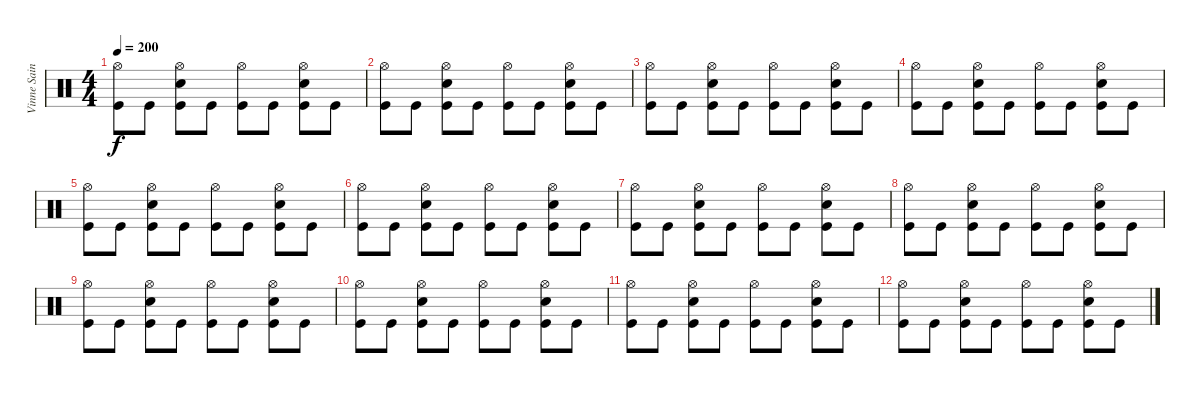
\track ("Vinne Saint James" "Vinne Sain") {instrument percussion}
\staff {score}
\articulation defaults
\ts (4 4)
\tempo 200
\clef neutral
\ks c
("Hi-Hat (open)" "Kick (hit)").8{dy f} "Kick (hit)".8 ("Hi-Hat (open)" "Electric Snare (hit)" "Kick (hit)").8 "Kick (hit)".8 ("Hi-Hat (open)" "Kick (hit)").8 "Kick (hit)".8 ("Hi-Hat (open)" "Electric Snare (hit)" "Kick (hit)").8 "Kick (hit)".8 |
("Hi-Hat (open)" "Kick (hit)").8 "Kick (hit)".8 ("Hi-Hat (open)" "Electric Snare (hit)" "Kick (hit)").8 "Kick (hit)".8 ("Hi-Hat (open)" "Kick (hit)").8 "Kick (hit)".8 ("Hi-Hat (open)" "Electric Snare (hit)" "Kick (hit)").8 "Kick (hit)".8 |
("Hi-Hat (open)" "Kick (hit)").8 "Kick (hit)".8 ("Hi-Hat (open)" "Electric Snare (hit)" "Kick (hit)").8 "Kick (hit)".8 ("Hi-Hat (open)" "Kick (hit)").8 "Kick (hit)".8 ("Hi-Hat (open)" "Electric Snare (hit)" "Kick (hit)").8 "Kick (hit)".8 |
("Hi-Hat (open)" "Kick (hit)").8 "Kick (hit)".8 ("Hi-Hat (open)" "Electric Snare (hit)" "Kick (hit)").8 "Kick (hit)".8 ("Hi-Hat (open)" "Kick (hit)").8 "Kick (hit)".8 ("Hi-Hat (open)" "Electric Snare (hit)" "Kick (hit)").8 "Kick (hit)".8 |
("Hi-Hat (open)" "Kick (hit)").8 "Kick (hit)".8 ("Hi-Hat (open)" "Electric Snare (hit)" "Kick (hit)").8 "Kick (hit)".8 ("Hi-Hat (open)" "Kick (hit)").8 "Kick (hit)".8 ("Hi-Hat (open)" "Electric Snare (hit)" "Kick (hit)").8 "Kick (hit)".8 |
("Hi-Hat (open)" "Kick (hit)").8 "Kick (hit)".8 ("Hi-Hat (open)" "Electric Snare (hit)" "Kick (hit)").8 "Kick (hit)".8 ("Hi-Hat (open)" "Kick (hit)").8 "Kick (hit)".8 ("Hi-Hat (open)" "Electric Snare (hit)" "Kick (hit)").8 "Kick (hit)".8 |
("Hi-Hat (open)" "Kick (hit)").8 "Kick (hit)".8 ("Hi-Hat (open)" "Electric Snare (hit)" "Kick (hit)").8 "Kick (hit)".8 ("Hi-Hat (open)" "Kick (hit)").8 "Kick (hit)".8 ("Hi-Hat (open)" "Electric Snare (hit)" "Kick (hit)").8 "Kick (hit)".8 |
("Hi-Hat (open)" "Kick (hit)").8 "Kick (hit)".8 ("Hi-Hat (open)" "Electric Snare (hit)" "Kick (hit)").8 "Kick (hit)".8 ("Hi-Hat (open)" "Kick (hit)").8 "Kick (hit)".8 ("Hi-Hat (open)" "Electric Snare (hit)" "Kick (hit)").8 "Kick (hit)".8 |
("Hi-Hat (open)" "Kick (hit)").8 "Kick (hit)".8 ("Hi-Hat (open)" "Electric Snare (hit)" "Kick (hit)").8 "Kick (hit)".8 ("Hi-Hat (open)" "Kick (hit)").8 "Kick (hit)".8 ("Hi-Hat (open)" "Electric Snare (hit)" "Kick (hit)").8 "Kick (hit)".8 |
("Hi-Hat (open)" "Kick (hit)").8 "Kick (hit)".8 ("Hi-Hat (open)" "Electric Snare (hit)" "Kick (hit)").8 "Kick (hit)".8 ("Hi-Hat (open)" "Kick (hit)").8 "Kick (hit)".8 ("Hi-Hat (open)" "Electric Snare (hit)" "Kick (hit)").8 "Kick (hit)".8 |
("Hi-Hat (open)" "Kick (hit)").8 "Kick (hit)".8 ("Hi-Hat (open)" "Electric Snare (hit)" "Kick (hit)").8 "Kick (hit)".8 ("Hi-Hat (open)" "Kick (hit)").8 "Kick (hit)".8 ("Hi-Hat (open)" "Electric Snare (hit)" "Kick (hit)").8 "Kick (hit)".8 |
("Hi-Hat (open)" "Kick (hit)").8 "Kick (hit)".8 ("Hi-Hat (open)" "Electric Snare (hit)" "Kick (hit)").8 "Kick (hit)".8 ("Hi-Hat (open)" "Kick (hit)").8 "Kick (hit)".8 ("Hi-Hat (open)" "Electric Snare (hit)" "Kick (hit)").8 "Kick (hit)".8
